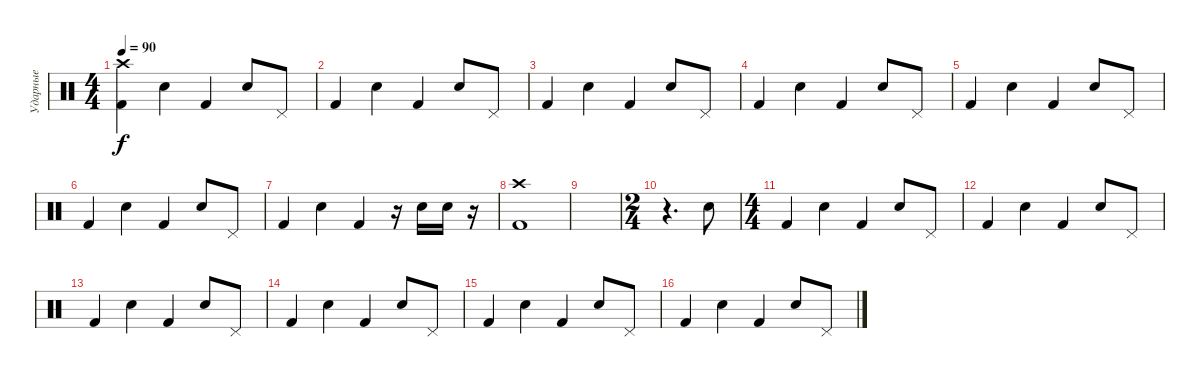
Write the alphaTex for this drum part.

\track ("Ударные" "Ударные") {instrument percussion}
\staff {score}
\articulation defaults
\ts (4 4)
\tempo 90
\clef neutral
\ks c
("Crash high (hit)" "Kick (hit) 2").4{dy f} "Electric Snare (hit)".4 "Kick (hit) 2".4 "Electric Snare (hit)".8 "Pedal Hi-Hat (hit)".8 |
"Kick (hit) 2".4 "Electric Snare (hit)".4 "Kick (hit) 2".4 "Electric Snare (hit)".8 "Pedal Hi-Hat (hit)".8 |
"Kick (hit) 2".4 "Electric Snare (hit)".4 "Kick (hit) 2".4 "Electric Snare (hit)".8 "Pedal Hi-Hat (hit)".8 |
"Kick (hit) 2".4 "Electric Snare (hit)".4 "Kick (hit) 2".4 "Electric Snare (hit)".8 "Pedal Hi-Hat (hit)".8 |
"Kick (hit) 2".4 "Electric Snare (hit)".4 "Kick (hit) 2".4 "Electric Snare (hit)".8 "Pedal Hi-Hat (hit)".8 |
"Kick (hit) 2".4 "Electric Snare (hit)".4 "Kick (hit) 2".4 "Electric Snare (hit)".8 "Pedal Hi-Hat (hit)".8 |
"Kick (hit) 2".4 "Electric Snare (hit)".4 "Kick (hit) 2".4 r.16 "Electric Snare (hit)".16 "Electric Snare (hit)".16 r.16 |
("Crash high (hit)" "Kick (hit) 2").1 |
|
\ts (2 4)
r.4{d} "Electric Snare (hit)".8 |
\ts (4 4)
"Kick (hit) 2".4 "Electric Snare (hit)".4 "Kick (hit) 2".4 "Electric Snare (hit)".8 "Pedal Hi-Hat (hit)".8 |
"Kick (hit) 2".4 "Electric Snare (hit)".4 "Kick (hit) 2".4 "Electric Snare (hit)".8 "Pedal Hi-Hat (hit)".8 |
"Kick (hit) 2".4 "Electric Snare (hit)".4 "Kick (hit) 2".4 "Electric Snare (hit)".8 "Pedal Hi-Hat (hit)".8 |
"Kick (hit) 2".4 "Electric Snare (hit)".4 "Kick (hit) 2".4 "Electric Snare (hit)".8 "Pedal Hi-Hat (hit)".8 |
"Kick (hit) 2".4 "Electric Snare (hit)".4 "Kick (hit) 2".4 "Electric Snare (hit)".8 "Pedal Hi-Hat (hit)".8 |
"Kick (hit) 2".4 "Electric Snare (hit)".4 "Kick (hit) 2".4 "Electric Snare (hit)".8 "Pedal Hi-Hat (hit)".8
